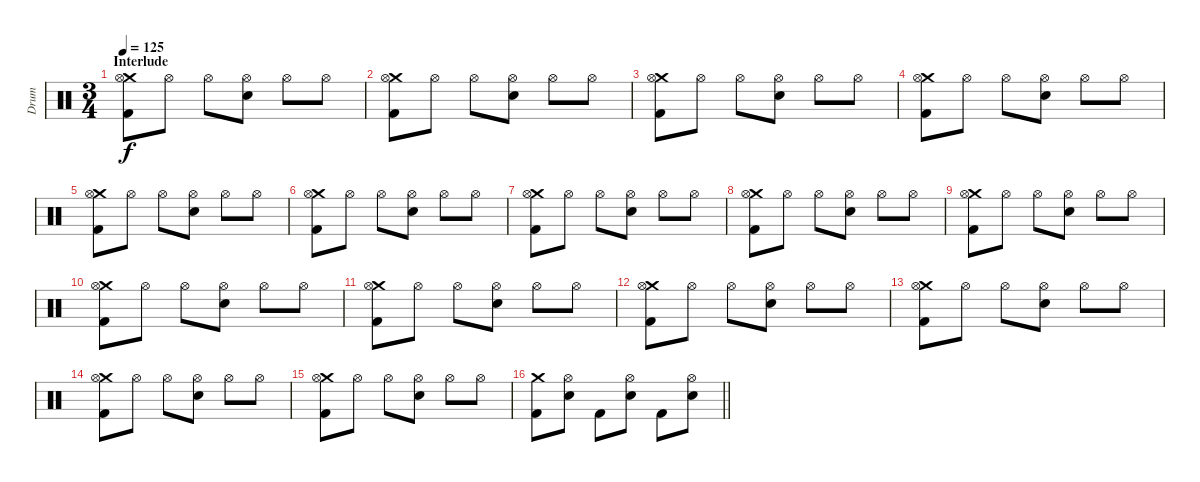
\track ("Drum" "Drum") {instrument percussion}
\staff {score}
\articulation defaults
\ts (3 4)
\section ("" "Interlude")
\tempo 125
\clef neutral
\ks c
("Crash medium (hit)" "Hi-Hat (open)" "Kick (hit) 2").8{dy f} "Hi-Hat (open)".8 "Hi-Hat (open)".8 ("Hi-Hat (open)" "Electric Snare (hit)").8 "Hi-Hat (open)".8 "Hi-Hat (open)".8 |
("Crash medium (hit)" "Hi-Hat (open)" "Kick (hit) 2").8 "Hi-Hat (open)".8 "Hi-Hat (open)".8 ("Hi-Hat (open)" "Electric Snare (hit)").8 "Hi-Hat (open)".8 "Hi-Hat (open)".8 |
("Crash medium (hit)" "Hi-Hat (open)" "Kick (hit) 2").8 "Hi-Hat (open)".8 "Hi-Hat (open)".8 ("Hi-Hat (open)" "Electric Snare (hit)").8 "Hi-Hat (open)".8 "Hi-Hat (open)".8 |
("Crash medium (hit)" "Hi-Hat (open)" "Kick (hit) 2").8 "Hi-Hat (open)".8 "Hi-Hat (open)".8 ("Hi-Hat (open)" "Electric Snare (hit)").8 "Hi-Hat (open)".8 "Hi-Hat (open)".8 |
("Crash medium (hit)" "Hi-Hat (open)" "Kick (hit) 2").8 "Hi-Hat (open)".8 "Hi-Hat (open)".8 ("Hi-Hat (open)" "Electric Snare (hit)").8 "Hi-Hat (open)".8 "Hi-Hat (open)".8 |
("Crash medium (hit)" "Hi-Hat (open)" "Kick (hit) 2").8 "Hi-Hat (open)".8 "Hi-Hat (open)".8 ("Hi-Hat (open)" "Electric Snare (hit)").8 "Hi-Hat (open)".8 "Hi-Hat (open)".8 |
("Crash medium (hit)" "Hi-Hat (open)" "Kick (hit) 2").8 "Hi-Hat (open)".8 "Hi-Hat (open)".8 ("Hi-Hat (open)" "Electric Snare (hit)").8 "Hi-Hat (open)".8 "Hi-Hat (open)".8 |
("Crash medium (hit)" "Hi-Hat (open)" "Kick (hit) 2").8 "Hi-Hat (open)".8 "Hi-Hat (open)".8 ("Hi-Hat (open)" "Electric Snare (hit)").8 "Hi-Hat (open)".8 "Hi-Hat (open)".8 |
("Crash medium (hit)" "Hi-Hat (open)" "Kick (hit) 2").8 "Hi-Hat (open)".8 "Hi-Hat (open)".8 ("Hi-Hat (open)" "Electric Snare (hit)").8 "Hi-Hat (open)".8 "Hi-Hat (open)".8 |
("Crash medium (hit)" "Hi-Hat (open)" "Kick (hit) 2").8 "Hi-Hat (open)".8 "Hi-Hat (open)".8 ("Hi-Hat (open)" "Electric Snare (hit)").8 "Hi-Hat (open)".8 "Hi-Hat (open)".8 |
("Crash medium (hit)" "Hi-Hat (open)" "Kick (hit) 2").8 "Hi-Hat (open)".8 "Hi-Hat (open)".8 ("Hi-Hat (open)" "Electric Snare (hit)").8 "Hi-Hat (open)".8 "Hi-Hat (open)".8 |
("Crash medium (hit)" "Hi-Hat (open)" "Kick (hit) 2").8 "Hi-Hat (open)".8 "Hi-Hat (open)".8 ("Hi-Hat (open)" "Electric Snare (hit)").8 "Hi-Hat (open)".8 "Hi-Hat (open)".8 |
("Crash medium (hit)" "Hi-Hat (open)" "Kick (hit) 2").8 "Hi-Hat (open)".8 "Hi-Hat (open)".8 ("Hi-Hat (open)" "Electric Snare (hit)").8 "Hi-Hat (open)".8 "Hi-Hat (open)".8 |
("Crash medium (hit)" "Hi-Hat (open)" "Kick (hit) 2").8 "Hi-Hat (open)".8 "Hi-Hat (open)".8 ("Hi-Hat (open)" "Electric Snare (hit)").8 "Hi-Hat (open)".8 "Hi-Hat (open)".8 |
("Crash medium (hit)" "Hi-Hat (open)" "Kick (hit) 2").8 "Hi-Hat (open)".8 "Hi-Hat (open)".8 ("Hi-Hat (open)" "Electric Snare (hit)").8 "Hi-Hat (open)".8 "Hi-Hat (open)".8 |
\barLineRight lightlight
("Crash medium (hit)" "Kick (hit) 2").8 ("Hi-Hat (open)" "Electric Snare (hit)").8 "Kick (hit) 2".8 ("Hi-Hat (open)" "Electric Snare (hit)").8 "Kick (hit) 2".8 ("Hi-Hat (open)" "Electric Snare (hit)").8
